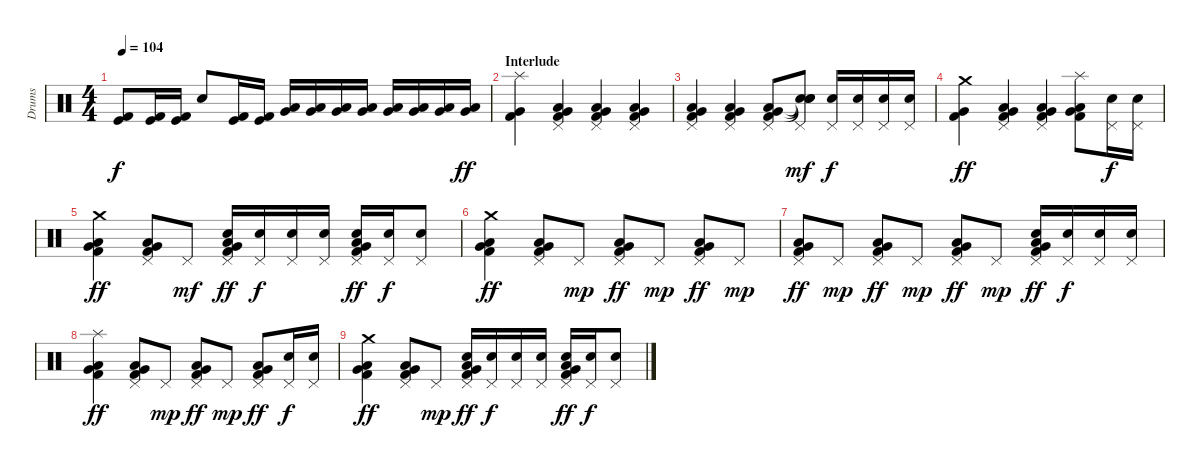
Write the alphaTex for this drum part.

\track ("Drums" "Drums") {instrument percussion}
\staff {score}
\articulation defaults
\ts (4 4)
\tempo 104
\clef neutral
\ks c
("Kick (hit)" "Kick (hit) 2").8{dy f} ("Kick (hit)" "Kick (hit) 2").16 ("Kick (hit)" "Kick (hit) 2").16 "Snare (hit) 2".8 ("Kick (hit)" "Kick (hit) 2").16 ("Kick (hit)" "Kick (hit) 2").16 ("Very Low Tom (hit)" "Low Floor Tom (hit)").16 ("Very Low Tom (hit)" "Low Floor Tom (hit)").16 ("Very Low Tom (hit)" "Low Floor Tom (hit)").16 ("Very Low Tom (hit)" "Low Floor Tom (hit)").16 ("Very Low Tom (hit)" "Low Floor Tom (hit)").16 ("Very Low Tom (hit)" "Low Floor Tom (hit)").16 ("Very Low Tom (hit)" "Low Floor Tom (hit)").16 ("Very Low Tom (hit)" "Low Floor Tom (hit)").16{dy ff} |
\section ("" "Interlude")
("Splash (hit)" "Very Low Tom (hit)" "Kick (hit) 2").4 ("Pedal Hi-Hat (hit)" "Low Floor Tom (hit)" "Very Low Tom (hit)" "Kick (hit) 2").4 ("Pedal Hi-Hat (hit)" "Low Floor Tom (hit)" "Very Low Tom (hit)" "Kick (hit) 2").4 ("Pedal Hi-Hat (hit)" "Low Floor Tom (hit)" "Very Low Tom (hit)" "Kick (hit) 2").4 |
("Pedal Hi-Hat (hit)" "Low Floor Tom (hit)" "Very Low Tom (hit)" "Kick (hit) 2").4 ("Pedal Hi-Hat (hit)" "Low Floor Tom (hit)" "Very Low Tom (hit)" "Kick (hit) 2").4 ("Pedal Hi-Hat (hit)" "Low Floor Tom (hit)" "Very Low Tom (hit)" "Kick (hit) 2").8 ("Pedal Hi-Hat (hit)" "Snare (hit)"{t} "Snare (hit)"{t} "Snare (hit)"{t}).8{dy mf} ("Pedal Hi-Hat (hit)" "Snare (hit) 2").16{dy f} ("Pedal Hi-Hat (hit)" "Snare (hit) 2").16 ("Pedal Hi-Hat (hit)" "Snare (hit) 2").16 ("Pedal Hi-Hat (hit)" "Snare (hit) 2").16 |
("Crash medium (hit)" "Very Low Tom (hit)" "Kick (hit) 2").4{dy ff} ("Pedal Hi-Hat (hit)" "Low Floor Tom (hit)" "Very Low Tom (hit)" "Kick (hit) 2").4 ("Pedal Hi-Hat (hit)" "Low Floor Tom (hit)" "Very Low Tom (hit)" "Kick (hit) 2").4 ("Splash (hit)" "Low Floor Tom (hit)" "Very Low Tom (hit)" "Kick (hit) 2").8 ("Pedal Hi-Hat (hit)" "Snare (hit) 2").16{dy f} ("Pedal Hi-Hat (hit)" "Snare (hit) 2").16 |
("Crash medium (hit)" "Low Floor Tom (hit)" "Very Low Tom (hit)" "Kick (hit) 2").4{dy ff} ("Pedal Hi-Hat (hit)" "Low Floor Tom (hit)" "Very Low Tom (hit)" "Kick (hit) 2").8 "Pedal Hi-Hat (hit)".8{dy mf} ("Pedal Hi-Hat (hit)" "Snare (hit) 2" "Low Floor Tom (hit)" "Very Low Tom (hit)" "Kick (hit) 2").16{dy ff} ("Pedal Hi-Hat (hit)" "Snare (hit) 2").16{dy f} ("Pedal Hi-Hat (hit)" "Snare (hit) 2").16 ("Pedal Hi-Hat (hit)" "Snare (hit) 2").16 ("Pedal Hi-Hat (hit)" "Snare (hit) 2" "Low Floor Tom (hit)" "Very Low Tom (hit)" "Kick (hit) 2").16{dy ff} ("Pedal Hi-Hat (hit)" "Snare (hit) 2").16{dy f} ("Pedal Hi-Hat (hit)" "Snare (hit) 2").8 |
("Crash medium (hit)" "Low Floor Tom (hit)" "Very Low Tom (hit)" "Kick (hit) 2").4{dy ff} ("Pedal Hi-Hat (hit)" "Low Floor Tom (hit)" "Very Low Tom (hit)" "Kick (hit) 2").8 "Pedal Hi-Hat (hit)".8{dy mp} ("Pedal Hi-Hat (hit)" "Low Floor Tom (hit)" "Very Low Tom (hit)" "Kick (hit) 2").8{dy ff} "Pedal Hi-Hat (hit)".8{dy mp} ("Pedal Hi-Hat (hit)" "Low Floor Tom (hit)" "Very Low Tom (hit)" "Kick (hit) 2").8{dy ff} "Pedal Hi-Hat (hit)".8{dy mp} |
("Pedal Hi-Hat (hit)" "Low Floor Tom (hit)" "Very Low Tom (hit)" "Kick (hit) 2").8{dy ff} "Pedal Hi-Hat (hit)".8{dy mp} ("Pedal Hi-Hat (hit)" "Low Floor Tom (hit)" "Very Low Tom (hit)" "Kick (hit) 2").8{dy ff} "Pedal Hi-Hat (hit)".8{dy mp} ("Pedal Hi-Hat (hit)" "Low Floor Tom (hit)" "Very Low Tom (hit)" "Kick (hit) 2").8{dy ff} "Pedal Hi-Hat (hit)".8{dy mp} ("Pedal Hi-Hat (hit)" "Snare (hit) 2" "Low Floor Tom (hit)" "Very Low Tom (hit)" "Kick (hit) 2").16{dy ff} ("Pedal Hi-Hat (hit)" "Snare (hit) 2").16{dy f} ("Pedal Hi-Hat (hit)" "Snare (hit) 2").16 ("Pedal Hi-Hat (hit)" "Snare (hit) 2").16 |
("Splash (hit)" "Low Floor Tom (hit)" "Very Low Tom (hit)" "Kick (hit) 2").4{dy ff} ("Pedal Hi-Hat (hit)" "Low Floor Tom (hit)" "Very Low Tom (hit)" "Kick (hit) 2").8 "Pedal Hi-Hat (hit)".8{dy mp} ("Pedal Hi-Hat (hit)" "Low Floor Tom (hit)" "Very Low Tom (hit)" "Kick (hit) 2").8{dy ff} "Pedal Hi-Hat (hit)".8{dy mp} ("Pedal Hi-Hat (hit)" "Low Floor Tom (hit)" "Very Low Tom (hit)" "Kick (hit) 2").8{dy ff} ("Pedal Hi-Hat (hit)" "Snare (hit) 2").16{dy f} ("Pedal Hi-Hat (hit)" "Snare (hit) 2").16 |
("Crash medium (hit)" "Low Floor Tom (hit)" "Very Low Tom (hit)" "Kick (hit) 2").4{dy ff} ("Pedal Hi-Hat (hit)" "Low Floor Tom (hit)" "Very Low Tom (hit)" "Kick (hit) 2").8 "Pedal Hi-Hat (hit)".8{dy mp} ("Pedal Hi-Hat (hit)" "Snare (hit) 2" "Low Floor Tom (hit)" "Very Low Tom (hit)" "Kick (hit) 2").16{dy ff} ("Pedal Hi-Hat (hit)" "Snare (hit) 2").16{dy f} ("Pedal Hi-Hat (hit)" "Snare (hit) 2").16 ("Pedal Hi-Hat (hit)" "Snare (hit) 2").16 ("Pedal Hi-Hat (hit)" "Snare (hit) 2" "Low Floor Tom (hit)" "Very Low Tom (hit)" "Kick (hit) 2").16{dy ff} ("Pedal Hi-Hat (hit)" "Snare (hit) 2").16{dy f} ("Pedal Hi-Hat (hit)" "Snare (hit) 2").8
